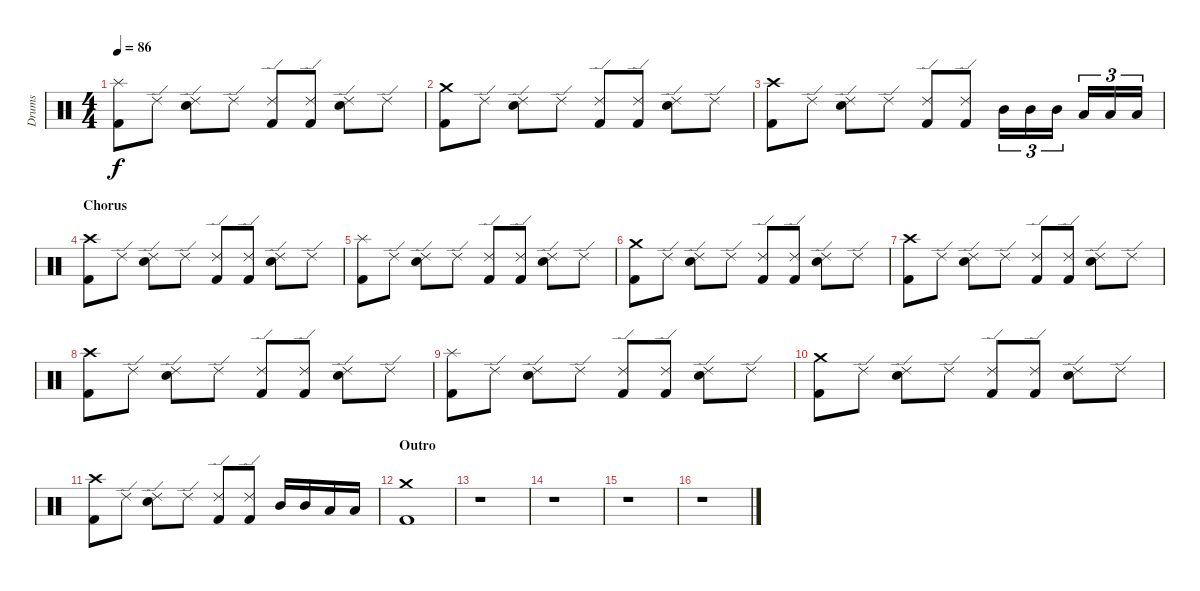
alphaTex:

\track ("Drums" "Drums") {instrument percussion}
\staff {score}
\articulation defaults
\ts (4 4)
\tempo 86
\clef neutral
\ks c
("Splash (hit)" "Kick (hit) 2").8{dy f} "Ride (edge) 2".8 ("Ride (edge) 2" "Snare (hit) 2").8 "Ride (edge) 2".8 ("Ride (edge) 2" "Kick (hit) 2").8 ("Ride (edge) 2" "Kick (hit) 2").8 ("Ride (edge) 2" "Snare (hit) 2").8 "Ride (edge) 2".8 |
("Crash medium (hit)" "Kick (hit) 2").8 "Ride (edge) 2".8 ("Ride (edge) 2" "Snare (hit) 2").8 "Ride (edge) 2".8 ("Ride (edge) 2" "Kick (hit) 2").8 ("Ride (edge) 2" "Kick (hit) 2").8 ("Ride (edge) 2" "Snare (hit) 2").8 "Ride (edge) 2".8 |
("Crash high (hit)" "Kick (hit) 2").8 "Ride (edge) 2".8 ("Ride (edge) 2" "Snare (hit) 2").8 "Ride (edge) 2".8 ("Ride (edge) 2" "Kick (hit) 2").8 ("Ride (edge) 2" "Kick (hit) 2").8 "Mid Tom (hit)".16{tu (3 2)} "Mid Tom (hit)".16{tu (3 2)} "Mid Tom (hit)".16{tu (3 2)} "Low Tom (hit)".16{tu (3 2)} "Low Tom (hit)".16{tu (3 2)} "Low Tom (hit)".16{tu (3 2)} |
\section ("" "Chorus")
("Crash high (hit)" "Kick (hit) 2").8 "Ride (edge) 2".8 ("Ride (edge) 2" "Snare (hit) 2").8 "Ride (edge) 2".8 ("Ride (edge) 2" "Kick (hit) 2").8 ("Ride (edge) 2" "Kick (hit) 2").8 ("Ride (edge) 2" "Snare (hit) 2").8 "Ride (edge) 2".8 |
("Splash (hit)" "Kick (hit) 2").8 "Ride (edge) 2".8 ("Ride (edge) 2" "Snare (hit) 2").8 "Ride (edge) 2".8 ("Ride (edge) 2" "Kick (hit) 2").8 ("Ride (edge) 2" "Kick (hit) 2").8 ("Ride (edge) 2" "Snare (hit) 2").8 "Ride (edge) 2".8 |
("Crash medium (hit)" "Kick (hit) 2").8 "Ride (edge) 2".8 ("Ride (edge) 2" "Snare (hit) 2").8 "Ride (edge) 2".8 ("Ride (edge) 2" "Kick (hit) 2").8 ("Ride (edge) 2" "Kick (hit) 2").8 ("Ride (edge) 2" "Snare (hit) 2").8 "Ride (edge) 2".8 |
("Crash high (hit)" "Kick (hit) 2").8 "Ride (edge) 2".8 ("Ride (edge) 2" "Snare (hit) 2").8 "Ride (edge) 2".8 ("Ride (edge) 2" "Kick (hit) 2").8 ("Ride (edge) 2" "Kick (hit) 2").8 ("Ride (edge) 2" "Snare (hit) 2").8 "Ride (edge) 2".8 |
("Crash high (hit)" "Kick (hit) 2").8 "Ride (edge) 2".8 ("Ride (edge) 2" "Snare (hit) 2").8 "Ride (edge) 2".8 ("Ride (edge) 2" "Kick (hit) 2").8 ("Ride (edge) 2" "Kick (hit) 2").8 ("Ride (edge) 2" "Snare (hit) 2").8 "Ride (edge) 2".8 |
("Splash (hit)" "Kick (hit) 2").8 "Ride (edge) 2".8 ("Ride (edge) 2" "Snare (hit) 2").8 "Ride (edge) 2".8 ("Ride (edge) 2" "Kick (hit) 2").8 ("Ride (edge) 2" "Kick (hit) 2").8 ("Ride (edge) 2" "Snare (hit) 2").8 "Ride (edge) 2".8 |
("Crash medium (hit)" "Kick (hit) 2").8 "Ride (edge) 2".8 ("Ride (edge) 2" "Snare (hit) 2").8 "Ride (edge) 2".8 ("Ride (edge) 2" "Kick (hit) 2").8 ("Ride (edge) 2" "Kick (hit) 2").8 ("Ride (edge) 2" "Snare (hit) 2").8 "Ride (edge) 2".8 |
("Crash high (hit)" "Kick (hit) 2").8 "Ride (edge) 2".8 ("Ride (edge) 2" "Snare (hit) 2").8 "Ride (edge) 2".8 ("Ride (edge) 2" "Kick (hit) 2").8 ("Ride (edge) 2" "Kick (hit) 2").8 "Mid Tom (hit)".16 "Mid Tom (hit)".16 "Low Tom (hit)".16 "Low Tom (hit)".16 |
\section ("" "Outro")
("Crash medium (hit)" "Kick (hit) 2").1 |
r.1 |
r.1 |
r.1 |
r.1
